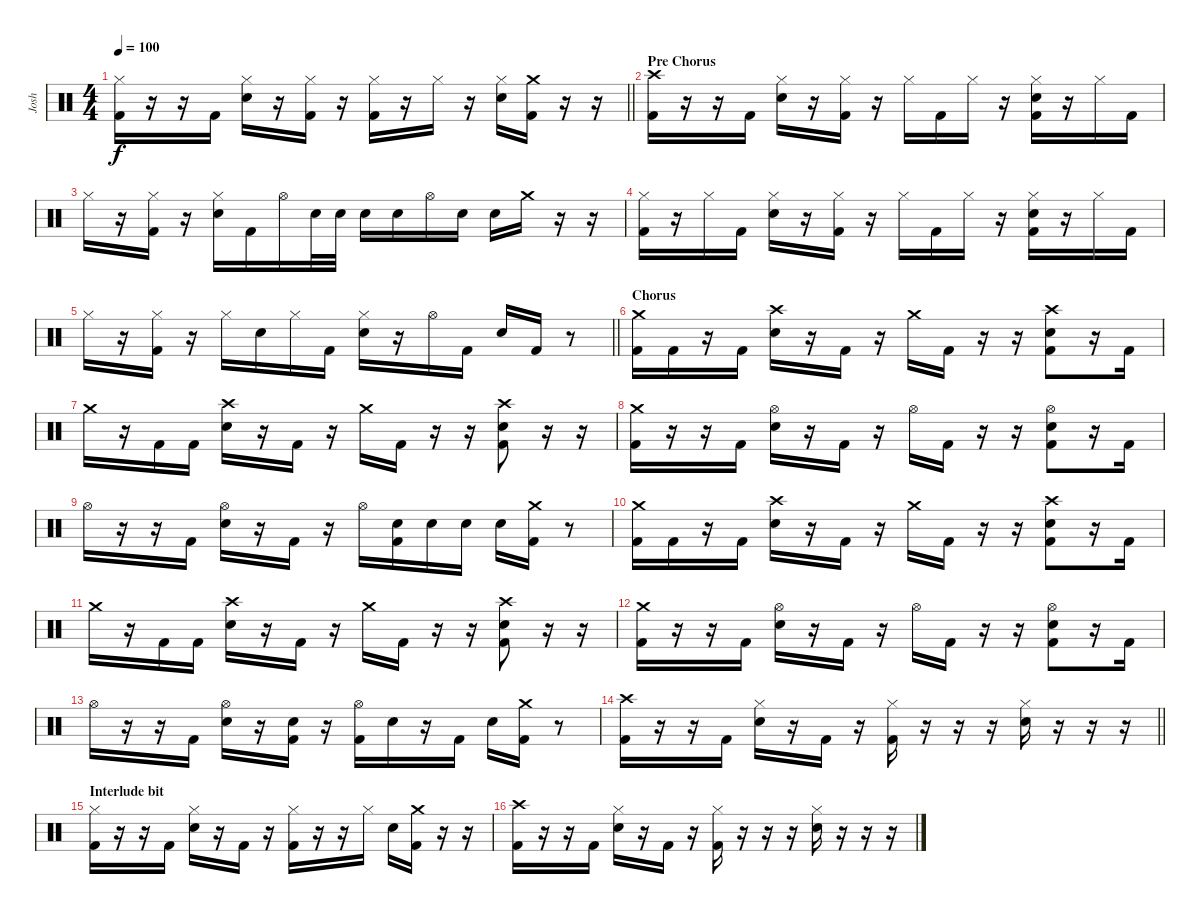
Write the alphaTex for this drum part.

\track ("Josh" "Josh") {instrument percussion}
\staff {score}
\articulation defaults
\ts (4 4)
\tempo 100
\clef neutral
\barLineRight lightlight
\ks c
("Hi-Hat (closed)" "Kick (hit) 2").16{dy f} r.16 r.16 "Kick (hit) 2".16 ("Hi-Hat (closed)" "Snare (hit) 2").16 r.16 ("Hi-Hat (closed)" "Kick (hit) 2").16 r.16 ("Hi-Hat (closed)" "Kick (hit) 2").16 r.16 "Hi-Hat (closed)".16 r.16 ("Hi-Hat (closed)" "Snare (hit) 2").16 ("Crash medium (hit)" "Kick (hit) 2").16 r.16 r.16 |
\section ("" "Pre Chorus")
("Crash high (hit)" "Kick (hit) 2").16 r.16 r.16 "Kick (hit) 2".16 ("Hi-Hat (closed)" "Snare (hit) 2").16 r.16 ("Hi-Hat (closed)" "Kick (hit) 2").16 r.16 "Hi-Hat (closed)".16 "Kick (hit) 2".16 "Hi-Hat (closed)".16 r.16 ("Hi-Hat (closed)" "Snare (hit) 2" "Kick (hit) 2").16 r.16 "Hi-Hat (closed)".16 "Kick (hit) 2".16 |
"Hi-Hat (closed)".16 r.16 ("Hi-Hat (closed)" "Kick (hit) 2").16 r.16 ("Hi-Hat (closed)" "Snare (hit) 2").16 "Kick (hit) 2".16 "Hi-Hat (open)".16 "Electric Snare (hit)".32 "Electric Snare (hit)".32 "Electric Snare (hit)".16 "Electric Snare (hit)".16 "Hi-Hat (open)".16 "Electric Snare (hit)".16 "Electric Snare (hit)".16 "Crash medium (hit)".16 r.16 r.16 |
("Hi-Hat (closed)" "Kick (hit) 2").16 r.16 "Hi-Hat (closed)".16 "Kick (hit) 2".16 ("Hi-Hat (closed)" "Snare (hit) 2").16 r.16 ("Hi-Hat (closed)" "Kick (hit) 2").16 r.16 "Hi-Hat (closed)".16 "Kick (hit) 2".16 "Hi-Hat (closed)".16 r.16 ("Hi-Hat (closed)" "Snare (hit) 2" "Kick (hit) 2").16 r.16 "Hi-Hat (closed)".16 "Kick (hit) 2".16 |
\barLineRight lightlight "Hi-Hat (closed)".16
r.16 ("Hi-Hat (closed)" "Kick (hit) 2").16 r.16 "Hi-Hat (closed)".16 "Snare (hit) 2".16 "Hi-Hat (closed)".16 "Kick (hit) 2".16 ("Hi-Hat (closed)" "Snare (hit) 2").16 r.16 "Hi-Hat (open)".16 "Kick (hit) 2".16 "Snare (hit) 2".16 "Kick (hit) 2".16 r.8 |
\section ("" "Chorus")
("Crash medium (hit)" "Kick (hit) 2").16 "Kick (hit) 2".16 r.16 "Kick (hit) 2".16 ("Crash high (hit)" "Snare (hit) 2").16 r.16 "Kick (hit) 2".16 r.16 "Crash medium (hit)".16 "Kick (hit) 2".16 r.16 r.16 ("Crash high (hit)" "Snare (hit) 2" "Kick (hit) 2").8 r.16 "Kick (hit) 2".16 |
"Crash medium (hit)".16 r.16 "Kick (hit) 2".16 "Kick (hit) 2".16 ("Crash high (hit)" "Snare (hit) 2").16 r.16 "Kick (hit) 2".16 r.16 "Crash medium (hit)".16 "Kick (hit) 2".16 r.16 r.16 ("Crash high (hit)" "Snare (hit) 2" "Kick (hit) 2").8 r.16 r.16 |
("Crash medium (hit)" "Kick (hit) 2").16 r.16 r.16 "Kick (hit) 2".16 ("Hi-Hat (open)" "Snare (hit) 2").16 r.16 "Kick (hit) 2".16 r.16 "Hi-Hat (open)".16 "Kick (hit) 2".16 r.16 r.16 ("Hi-Hat (open)" "Snare (hit) 2" "Kick (hit) 2").8 r.16 "Kick (hit) 2".16 |
"Hi-Hat (open)".16 r.16 r.16 "Kick (hit) 2".16 ("Hi-Hat (open)" "Snare (hit) 2").16 r.16 "Kick (hit) 2".16 r.16 "Hi-Hat (open)".16 ("Snare (hit) 2" "Kick (hit) 2").16 "Snare (hit) 2".16 "Snare (hit) 2".16 "Snare (hit) 2".16 ("Crash medium (hit)" "Kick (hit) 2").16 r.8 |
("Crash medium (hit)" "Kick (hit) 2").16 "Kick (hit) 2".16 r.16 "Kick (hit) 2".16 ("Crash high (hit)" "Snare (hit) 2").16 r.16 "Kick (hit) 2".16 r.16 "Crash medium (hit)".16 "Kick (hit) 2".16 r.16 r.16 ("Crash high (hit)" "Snare (hit) 2" "Kick (hit) 2").8 r.16 "Kick (hit) 2".16 |
"Crash medium (hit)".16 r.16 "Kick (hit) 2".16 "Kick (hit) 2".16 ("Crash high (hit)" "Snare (hit) 2").16 r.16 "Kick (hit) 2".16 r.16 "Crash medium (hit)".16 "Kick (hit) 2".16 r.16 r.16 ("Crash high (hit)" "Snare (hit) 2" "Kick (hit) 2").8 r.16 r.16 |
("Crash medium (hit)" "Kick (hit) 2").16 r.16 r.16 "Kick (hit) 2".16 ("Hi-Hat (open)" "Snare (hit) 2").16 r.16 "Kick (hit) 2".16 r.16 "Hi-Hat (open)".16 "Kick (hit) 2".16 r.16 r.16 ("Hi-Hat (open)" "Snare (hit) 2" "Kick (hit) 2").8 r.16 "Kick (hit) 2".16 |
"Hi-Hat (open)".16 r.16 r.16 "Kick (hit) 2".16 ("Hi-Hat (open)" "Snare (hit) 2").16 r.16 ("Snare (hit) 2" "Kick (hit) 2").16 r.16 ("Hi-Hat (open)" "Kick (hit) 2").16 "Snare (hit) 2".16 r.16 "Kick (hit) 2".16 "Snare (hit) 2".16 ("Crash medium (hit)" "Kick (hit) 2").16 r.8 |
\barLineRight lightlight
("Crash high (hit)" "Kick (hit) 2").16 r.16 r.16 "Kick (hit) 2".16 ("Hi-Hat (closed)" "Snare (hit) 2").16 r.16 "Kick (hit) 2".16 r.16 ("Hi-Hat (closed)" "Kick (hit) 2").16 r.16 r.16 r.16 ("Hi-Hat (closed)" "Snare (hit) 2").16 r.16 r.16 r.16 |
\section ("" "Interlude bit")
("Hi-Hat (closed)" "Kick (hit) 2").16 r.16 r.16 "Kick (hit) 2".16 ("Hi-Hat (closed)" "Snare (hit) 2").16 r.16 "Kick (hit) 2".16 r.16 ("Hi-Hat (closed)" "Kick (hit) 2").16 r.16 r.16 "Hi-Hat (closed)".16 "Snare (hit) 2".16 ("Crash medium (hit)" "Kick (hit) 2").16 r.16 r.16 |
("Crash high (hit)" "Kick (hit) 2").16 r.16 r.16 "Kick (hit) 2".16 ("Hi-Hat (closed)" "Snare (hit) 2").16 r.16 "Kick (hit) 2".16 r.16 ("Hi-Hat (closed)" "Kick (hit) 2").16 r.16 r.16 r.16 ("Hi-Hat (closed)" "Snare (hit) 2").16 r.16 r.16 r.16
